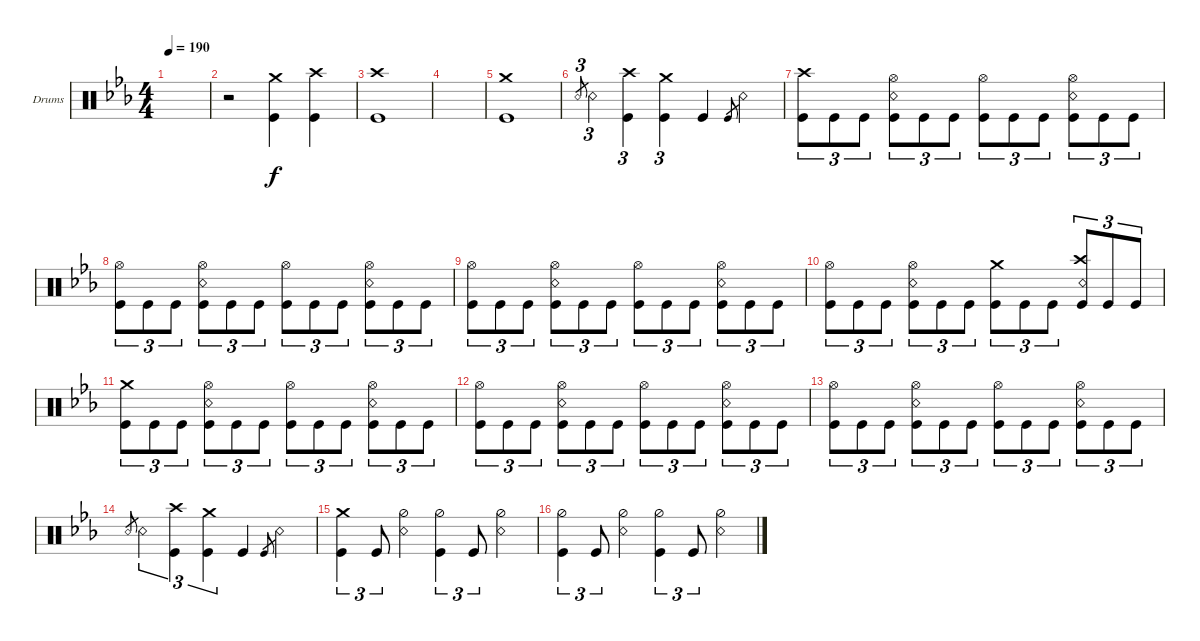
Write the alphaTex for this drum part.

\defaultSystemsLayout 4
\bracketExtendMode groupsimilarinstruments
\firstSystemTrackNameOrientation horizontal
\otherSystemsTrackNameOrientation horizontal
\track ("Drumkit" "Drums") {instrument percussion}
\staff {score}
\articulation defaults
\ts (4 4)
\tempo 190
\clef neutral
\ks cminor
|
r.2 ("Kick (hit)" "Crash medium (hit)").4 ("Kick (hit)" "Crash high (hit)").4 |
("Kick (hit)" "Crash high (hit)").1 |
|
("Kick (hit)" "Crash medium (hit)").1 |
"Snare (rim shot)".8{tu (3 2) gr} "Snare (rim shot)".4{tu (3 2)} ("Kick (hit)" "Crash high (hit)").4{tu (3 2)} ("Kick (hit)" "Crash medium (hit)").4{tu (3 2)} "Kick (hit)".4 "Kick (hit)".8{gr} "Snare (rim shot)".4 |
("Kick (hit)" "Crash high (hit)").8{tu (3 2)} "Kick (hit)".8{tu (3 2)} "Kick (hit)".8{tu (3 2)} ("Kick (hit)" "Hi-Hat (open)" "Snare (rim shot)").8{tu (3 2)} "Kick (hit)".8{tu (3 2)} "Kick (hit)".8{tu (3 2)} ("Kick (hit)" "Hi-Hat (open)").8{tu (3 2)} "Kick (hit)".8{tu (3 2)} "Kick (hit)".8{tu (3 2)} ("Kick (hit)" "Hi-Hat (open)" "Snare (rim shot)").8{tu (3 2)} "Kick (hit)".8{tu (3 2)} "Kick (hit)".8{tu (3 2)} |
("Kick (hit)" "Hi-Hat (open)").8{tu (3 2)} "Kick (hit)".8{tu (3 2)} "Kick (hit)".8{tu (3 2)} ("Kick (hit)" "Hi-Hat (open)" "Snare (rim shot)").8{tu (3 2)} "Kick (hit)".8{tu (3 2)} "Kick (hit)".8{tu (3 2)} ("Kick (hit)" "Hi-Hat (open)").8{tu (3 2)} "Kick (hit)".8{tu (3 2)} "Kick (hit)".8{tu (3 2)} ("Kick (hit)" "Hi-Hat (open)" "Snare (rim shot)").8{tu (3 2)} "Kick (hit)".8{tu (3 2)} "Kick (hit)".8{tu (3 2)} |
("Kick (hit)" "Hi-Hat (open)").8{tu (3 2)} "Kick (hit)".8{tu (3 2)} "Kick (hit)".8{tu (3 2)} ("Kick (hit)" "Hi-Hat (open)" "Snare (rim shot)").8{tu (3 2)} "Kick (hit)".8{tu (3 2)} "Kick (hit)".8{tu (3 2)} ("Kick (hit)" "Hi-Hat (open)").8{tu (3 2)} "Kick (hit)".8{tu (3 2)} "Kick (hit)".8{tu (3 2)} ("Kick (hit)" "Hi-Hat (open)" "Snare (rim shot)").8{tu (3 2)} "Kick (hit)".8{tu (3 2)} "Kick (hit)".8{tu (3 2)} |
("Kick (hit)" "Hi-Hat (open)").8{tu (3 2)} "Kick (hit)".8{tu (3 2)} "Kick (hit)".8{tu (3 2)} ("Kick (hit)" "Hi-Hat (open)" "Snare (rim shot)").8{tu (3 2)} "Kick (hit)".8{tu (3 2)} "Kick (hit)".8{tu (3 2)} ("Kick (hit)" "Crash medium (hit)").8{tu (3 2)} "Kick (hit)".8{tu (3 2)} "Kick (hit)".8{tu (3 2)} ("Kick (hit)" "Snare (rim shot)" "Crash high (hit)").8{tu (3 2)} "Kick (hit)".8{tu (3 2)} "Kick (hit)".8{tu (3 2)} |
("Kick (hit)" "Crash medium (hit)").8{tu (3 2)} "Kick (hit)".8{tu (3 2)} "Kick (hit)".8{tu (3 2)} ("Kick (hit)" "Hi-Hat (open)" "Snare (rim shot)").8{tu (3 2)} "Kick (hit)".8{tu (3 2)} "Kick (hit)".8{tu (3 2)} ("Kick (hit)" "Hi-Hat (open)").8{tu (3 2)} "Kick (hit)".8{tu (3 2)} "Kick (hit)".8{tu (3 2)} ("Kick (hit)" "Hi-Hat (open)" "Snare (rim shot)").8{tu (3 2)} "Kick (hit)".8{tu (3 2)} "Kick (hit)".8{tu (3 2)} |
("Kick (hit)" "Hi-Hat (open)").8{tu (3 2)} "Kick (hit)".8{tu (3 2)} "Kick (hit)".8{tu (3 2)} ("Kick (hit)" "Hi-Hat (open)" "Snare (rim shot)").8{tu (3 2)} "Kick (hit)".8{tu (3 2)} "Kick (hit)".8{tu (3 2)} ("Kick (hit)" "Hi-Hat (open)").8{tu (3 2)} "Kick (hit)".8{tu (3 2)} "Kick (hit)".8{tu (3 2)} ("Kick (hit)" "Hi-Hat (open)" "Snare (rim shot)").8{tu (3 2)} "Kick (hit)".8{tu (3 2)} "Kick (hit)".8{tu (3 2)} |
("Kick (hit)" "Hi-Hat (open)").8{tu (3 2)} "Kick (hit)".8{tu (3 2)} "Kick (hit)".8{tu (3 2)} ("Kick (hit)" "Hi-Hat (open)" "Snare (rim shot)").8{tu (3 2)} "Kick (hit)".8{tu (3 2)} "Kick (hit)".8{tu (3 2)} ("Kick (hit)" "Hi-Hat (open)").8{tu (3 2)} "Kick (hit)".8{tu (3 2)} "Kick (hit)".8{tu (3 2)} ("Kick (hit)" "Hi-Hat (open)" "Snare (rim shot)").8{tu (3 2)} "Kick (hit)".8{tu (3 2)} "Kick (hit)".8{tu (3 2)} |
"Snare (rim shot)".8{tu (3 2) gr} "Snare (rim shot)".4{tu (3 2)} ("Kick (hit)" "Crash high (hit)").4{tu (3 2)} ("Kick (hit)" "Crash medium (hit)").4{tu (3 2)} "Kick (hit)".4 "Kick (hit)".8{gr} "Snare (rim shot)".4 |
("Kick (hit)" "Crash medium (hit)").4{tu (3 2)} "Kick (hit)".8{tu (3 2)} ("Hi-Hat (half)" "Snare (rim shot)").4 ("Kick (hit)" "Hi-Hat (half)").4{tu (3 2)} "Kick (hit)".8{tu (3 2)} ("Hi-Hat (half)" "Snare (rim shot)").4 |
("Kick (hit)" "Hi-Hat (half)").4{tu (3 2)} "Kick (hit)".8{tu (3 2)} ("Hi-Hat (half)" "Snare (rim shot)").4 ("Kick (hit)" "Hi-Hat (half)").4{tu (3 2)} "Kick (hit)".8{tu (3 2)} ("Hi-Hat (half)" "Snare (rim shot)").4
